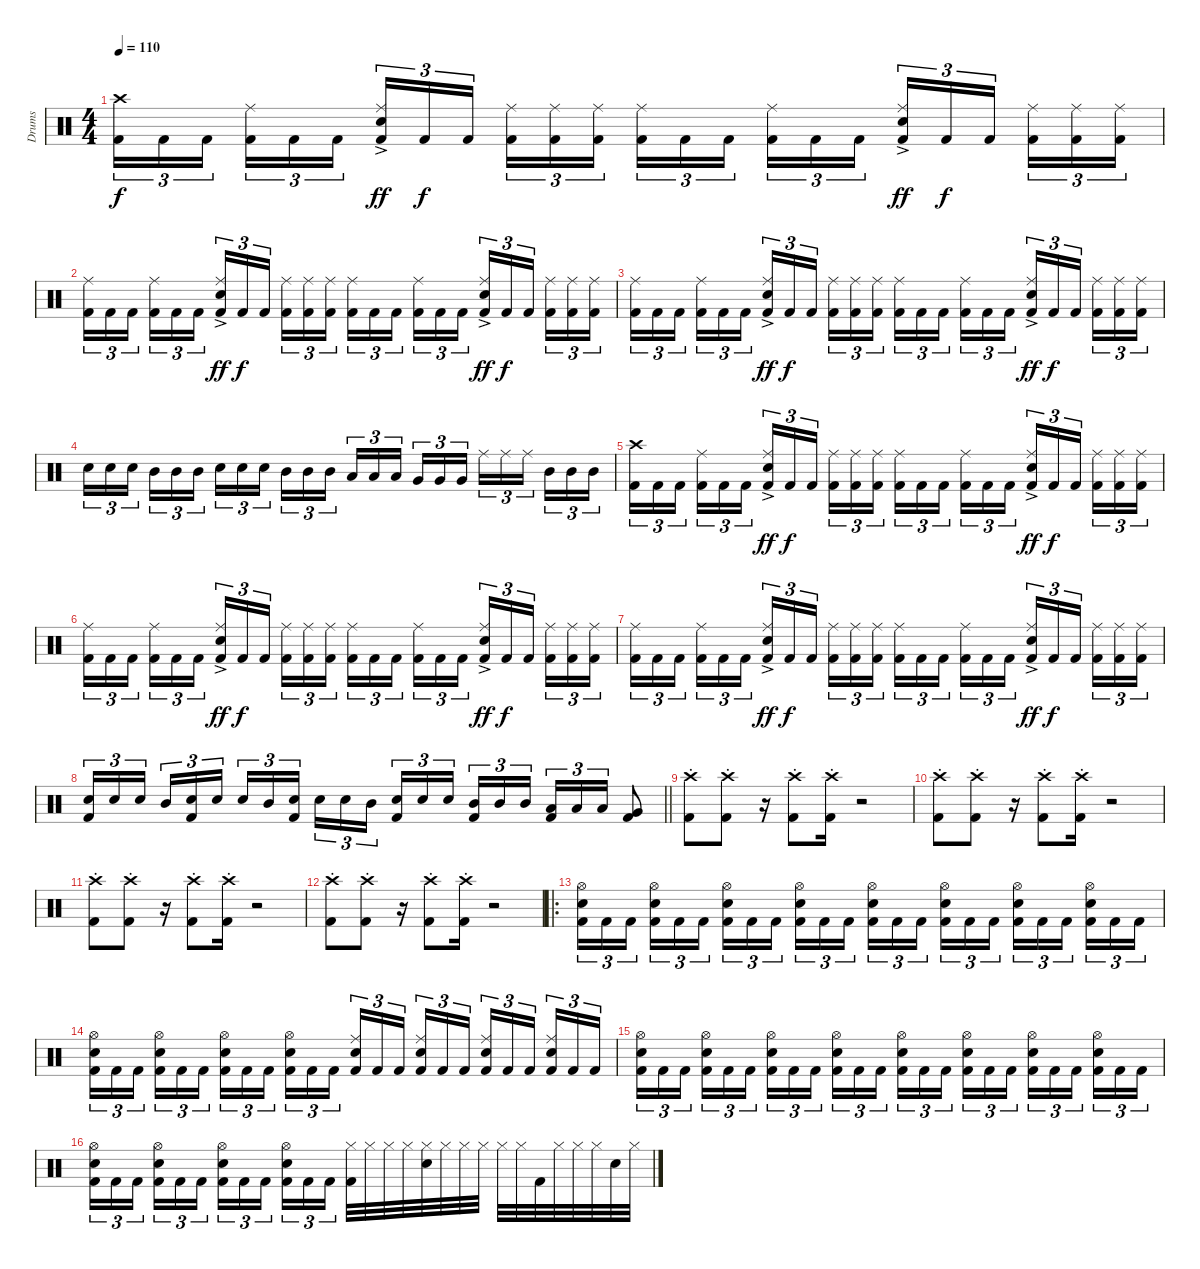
\track ("Drums" "Drums") {instrument percussion}
\staff {score}
\articulation defaults
\ts (4 4)
\tempo 110
\clef neutral
\ks c
("Crash high (hit)" "Kick (hit) 2").16{tu (3 2) dy f} "Kick (hit) 2".16{tu (3 2)} "Kick (hit) 2".16{tu (3 2) beam splitsecondary} ("Ride (middle)" "Kick (hit) 2").16{tu (3 2)} "Kick (hit) 2".16{tu (3 2)} "Kick (hit) 2".16{tu (3 2)} ("Ride (middle)"{ac} "Snare (hit) 2" "Kick (hit) 2").16{tu (3 2) dy ff} "Kick (hit) 2".16{tu (3 2) dy f} "Kick (hit) 2".16{tu (3 2) beam splitsecondary} ("Ride (middle)" "Kick (hit) 2").16{tu (3 2)} ("Ride (middle)" "Kick (hit) 2").16{tu (3 2)} ("Ride (middle)" "Kick (hit) 2").16{tu (3 2)} ("Ride (middle)" "Kick (hit) 2").16{tu (3 2)} "Kick (hit) 2".16{tu (3 2)} "Kick (hit) 2".16{tu (3 2) beam splitsecondary} ("Ride (middle)" "Kick (hit) 2").16{tu (3 2)} "Kick (hit) 2".16{tu (3 2)} "Kick (hit) 2".16{tu (3 2)} ("Ride (middle)"{ac} "Snare (hit) 2" "Kick (hit) 2").16{tu (3 2) dy ff} "Kick (hit) 2".16{tu (3 2) dy f} "Kick (hit) 2".16{tu (3 2) beam splitsecondary} ("Ride (middle)" "Kick (hit) 2").16{tu (3 2)} ("Ride (middle)" "Kick (hit) 2").16{tu (3 2)} ("Ride (middle)" "Kick (hit) 2").16{tu (3 2)} |
("Ride (middle)" "Kick (hit) 2").16{tu (3 2)} "Kick (hit) 2".16{tu (3 2)} "Kick (hit) 2".16{tu (3 2) beam splitsecondary} ("Ride (middle)" "Kick (hit) 2").16{tu (3 2)} "Kick (hit) 2".16{tu (3 2)} "Kick (hit) 2".16{tu (3 2)} ("Ride (middle)"{ac} "Snare (hit) 2" "Kick (hit) 2").16{tu (3 2) dy ff} "Kick (hit) 2".16{tu (3 2) dy f} "Kick (hit) 2".16{tu (3 2) beam splitsecondary} ("Ride (middle)" "Kick (hit) 2").16{tu (3 2)} ("Ride (middle)" "Kick (hit) 2").16{tu (3 2)} ("Ride (middle)" "Kick (hit) 2").16{tu (3 2)} ("Ride (middle)" "Kick (hit) 2").16{tu (3 2)} "Kick (hit) 2".16{tu (3 2)} "Kick (hit) 2".16{tu (3 2) beam splitsecondary} ("Ride (middle)" "Kick (hit) 2").16{tu (3 2)} "Kick (hit) 2".16{tu (3 2)} "Kick (hit) 2".16{tu (3 2)} ("Ride (middle)"{ac} "Snare (hit) 2" "Kick (hit) 2").16{tu (3 2) dy ff} "Kick (hit) 2".16{tu (3 2) dy f} "Kick (hit) 2".16{tu (3 2) beam splitsecondary} ("Ride (middle)" "Kick (hit) 2").16{tu (3 2)} ("Ride (middle)" "Kick (hit) 2").16{tu (3 2)} ("Ride (middle)" "Kick (hit) 2").16{tu (3 2)} |
("Ride (middle)" "Kick (hit) 2").16{tu (3 2)} "Kick (hit) 2".16{tu (3 2)} "Kick (hit) 2".16{tu (3 2) beam splitsecondary} ("Ride (middle)" "Kick (hit) 2").16{tu (3 2)} "Kick (hit) 2".16{tu (3 2)} "Kick (hit) 2".16{tu (3 2)} ("Ride (middle)"{ac} "Snare (hit) 2" "Kick (hit) 2").16{tu (3 2) dy ff} "Kick (hit) 2".16{tu (3 2) dy f} "Kick (hit) 2".16{tu (3 2) beam splitsecondary} ("Ride (middle)" "Kick (hit) 2").16{tu (3 2)} ("Ride (middle)" "Kick (hit) 2").16{tu (3 2)} ("Ride (middle)" "Kick (hit) 2").16{tu (3 2)} ("Ride (middle)" "Kick (hit) 2").16{tu (3 2)} "Kick (hit) 2".16{tu (3 2)} "Kick (hit) 2".16{tu (3 2) beam splitsecondary} ("Ride (middle)" "Kick (hit) 2").16{tu (3 2)} "Kick (hit) 2".16{tu (3 2)} "Kick (hit) 2".16{tu (3 2)} ("Ride (middle)"{ac} "Snare (hit) 2" "Kick (hit) 2").16{tu (3 2) dy ff} "Kick (hit) 2".16{tu (3 2) dy f} "Kick (hit) 2".16{tu (3 2) beam splitsecondary} ("Ride (middle)" "Kick (hit) 2").16{tu (3 2)} ("Ride (middle)" "Kick (hit) 2").16{tu (3 2)} ("Ride (middle)" "Kick (hit) 2").16{tu (3 2)} |
"Snare (hit) 2".16{tu (3 2)} "Snare (hit) 2".16{tu (3 2)} "Snare (hit) 2".16{tu (3 2) beam splitsecondary} "Mid Tom (hit)".16{tu (3 2)} "Mid Tom (hit)".16{tu (3 2)} "Mid Tom (hit)".16{tu (3 2)} "Snare (hit) 2".16{tu (3 2)} "Snare (hit) 2".16{tu (3 2)} "Snare (hit) 2".16{tu (3 2) beam splitsecondary} "Mid Tom (hit)".16{tu (3 2)} "Mid Tom (hit)".16{tu (3 2)} "Mid Tom (hit)".16{tu (3 2)} "Low Tom (hit)".16{tu (3 2)} "Low Tom (hit)".16{tu (3 2)} "Low Tom (hit)".16{tu (3 2) beam splitsecondary} "Very Low Tom (hit)".16{tu (3 2)} "Very Low Tom (hit)".16{tu (3 2)} "Very Low Tom (hit)".16{tu (3 2)} "Ride (middle)".16{tu (3 2)} "Ride (middle)".16{tu (3 2)} "Ride (middle)".16{tu (3 2) beam splitsecondary} "Mid Tom (hit)".16{tu (3 2)} "Mid Tom (hit)".16{tu (3 2)} "Mid Tom (hit)".16{tu (3 2)} |
("Crash high (hit)" "Kick (hit) 2").16{tu (3 2)} "Kick (hit) 2".16{tu (3 2)} "Kick (hit) 2".16{tu (3 2) beam splitsecondary} ("Ride (middle)" "Kick (hit) 2").16{tu (3 2)} "Kick (hit) 2".16{tu (3 2)} "Kick (hit) 2".16{tu (3 2)} ("Ride (middle)"{ac} "Snare (hit) 2" "Kick (hit) 2").16{tu (3 2) dy ff} "Kick (hit) 2".16{tu (3 2) dy f} "Kick (hit) 2".16{tu (3 2) beam splitsecondary} ("Ride (middle)" "Kick (hit) 2").16{tu (3 2)} ("Ride (middle)" "Kick (hit) 2").16{tu (3 2)} ("Ride (middle)" "Kick (hit) 2").16{tu (3 2)} ("Ride (middle)" "Kick (hit) 2").16{tu (3 2)} "Kick (hit) 2".16{tu (3 2)} "Kick (hit) 2".16{tu (3 2) beam splitsecondary} ("Ride (middle)" "Kick (hit) 2").16{tu (3 2)} "Kick (hit) 2".16{tu (3 2)} "Kick (hit) 2".16{tu (3 2)} ("Ride (middle)"{ac} "Snare (hit) 2" "Kick (hit) 2").16{tu (3 2) dy ff} "Kick (hit) 2".16{tu (3 2) dy f} "Kick (hit) 2".16{tu (3 2) beam splitsecondary} ("Ride (middle)" "Kick (hit) 2").16{tu (3 2)} ("Ride (middle)" "Kick (hit) 2").16{tu (3 2)} ("Ride (middle)" "Kick (hit) 2").16{tu (3 2)} |
("Ride (middle)" "Kick (hit) 2").16{tu (3 2)} "Kick (hit) 2".16{tu (3 2)} "Kick (hit) 2".16{tu (3 2) beam splitsecondary} ("Ride (middle)" "Kick (hit) 2").16{tu (3 2)} "Kick (hit) 2".16{tu (3 2)} "Kick (hit) 2".16{tu (3 2)} ("Ride (middle)"{ac} "Snare (hit) 2" "Kick (hit) 2").16{tu (3 2) dy ff} "Kick (hit) 2".16{tu (3 2) dy f} "Kick (hit) 2".16{tu (3 2) beam splitsecondary} ("Ride (middle)" "Kick (hit) 2").16{tu (3 2)} ("Ride (middle)" "Kick (hit) 2").16{tu (3 2)} ("Ride (middle)" "Kick (hit) 2").16{tu (3 2)} ("Ride (middle)" "Kick (hit) 2").16{tu (3 2)} "Kick (hit) 2".16{tu (3 2)} "Kick (hit) 2".16{tu (3 2) beam splitsecondary} ("Ride (middle)" "Kick (hit) 2").16{tu (3 2)} "Kick (hit) 2".16{tu (3 2)} "Kick (hit) 2".16{tu (3 2)} ("Ride (middle)"{ac} "Snare (hit) 2" "Kick (hit) 2").16{tu (3 2) dy ff} "Kick (hit) 2".16{tu (3 2) dy f} "Kick (hit) 2".16{tu (3 2) beam splitsecondary} ("Ride (middle)" "Kick (hit) 2").16{tu (3 2)} ("Ride (middle)" "Kick (hit) 2").16{tu (3 2)} ("Ride (middle)" "Kick (hit) 2").16{tu (3 2)} |
("Ride (middle)" "Kick (hit) 2").16{tu (3 2)} "Kick (hit) 2".16{tu (3 2)} "Kick (hit) 2".16{tu (3 2) beam splitsecondary} ("Ride (middle)" "Kick (hit) 2").16{tu (3 2)} "Kick (hit) 2".16{tu (3 2)} "Kick (hit) 2".16{tu (3 2)} ("Ride (middle)"{ac} "Snare (hit) 2" "Kick (hit) 2").16{tu (3 2) dy ff} "Kick (hit) 2".16{tu (3 2) dy f} "Kick (hit) 2".16{tu (3 2) beam splitsecondary} ("Ride (middle)" "Kick (hit) 2").16{tu (3 2)} ("Ride (middle)" "Kick (hit) 2").16{tu (3 2)} ("Ride (middle)" "Kick (hit) 2").16{tu (3 2)} ("Ride (middle)" "Kick (hit) 2").16{tu (3 2)} "Kick (hit) 2".16{tu (3 2)} "Kick (hit) 2".16{tu (3 2) beam splitsecondary} ("Ride (middle)" "Kick (hit) 2").16{tu (3 2)} "Kick (hit) 2".16{tu (3 2)} "Kick (hit) 2".16{tu (3 2)} ("Ride (middle)"{ac} "Snare (hit) 2" "Kick (hit) 2").16{tu (3 2) dy ff} "Kick (hit) 2".16{tu (3 2) dy f} "Kick (hit) 2".16{tu (3 2) beam splitsecondary} ("Ride (middle)" "Kick (hit) 2").16{tu (3 2)} ("Ride (middle)" "Kick (hit) 2").16{tu (3 2)} ("Ride (middle)" "Kick (hit) 2").16{tu (3 2)} |
\barLineRight lightlight
("Snare (hit) 2" "Kick (hit) 2").16{tu (3 2)} "Snare (hit) 2".16{tu (3 2)} "Snare (hit) 2".16{tu (3 2) beam splitsecondary} "Mid Tom (hit)".16{tu (3 2)} ("Snare (hit) 2" "Kick (hit) 2").16{tu (3 2)} "Snare (hit) 2".16{tu (3 2)} "Snare (hit) 2".16{tu (3 2)} "Mid Tom (hit)".16{tu (3 2)} ("Snare (hit) 2" "Kick (hit) 2").16{tu (3 2) beam splitsecondary} "Snare (hit) 2".16{tu (3 2)} "Snare (hit) 2".16{tu (3 2)} "Mid Tom (hit)".16{tu (3 2)} ("Snare (hit) 2" "Kick (hit) 2").16{tu (3 2)} "Snare (hit) 2".16{tu (3 2)} "Snare (hit) 2".16{tu (3 2) beam splitsecondary} ("Mid Tom (hit)" "Kick (hit) 2").16{tu (3 2)} "Mid Tom (hit)".16{tu (3 2)} "Mid Tom (hit)".16{tu (3 2)} ("Low Tom (hit)" "Kick (hit) 2").16{tu (3 2)} "Low Tom (hit)".16{tu (3 2)} "Low Tom (hit)".16{tu (3 2)} ("Very Low Tom (hit)" "Kick (hit) 2").8 |
("Crash high (hit)"{st} "Kick (hit) 2").8 ("Crash high (hit)"{st} "Kick (hit) 2").8 r.16 ("Crash high (hit)"{st} "Kick (hit) 2").8 ("Crash high (hit)"{st} "Kick (hit) 2").16 r.2 |
("Crash high (hit)"{st} "Kick (hit) 2").8 ("Crash high (hit)"{st} "Kick (hit) 2").8 r.16 ("Crash high (hit)"{st} "Kick (hit) 2").8 ("Crash high (hit)"{st} "Kick (hit) 2").16 r.2 |
("Crash high (hit)"{st} "Kick (hit) 2").8 ("Crash high (hit)"{st} "Kick (hit) 2").8 r.16 ("Crash high (hit)"{st} "Kick (hit) 2").8 ("Crash high (hit)"{st} "Kick (hit) 2").16 r.2 |
("Crash high (hit)"{st} "Kick (hit) 2").8 ("Crash high (hit)"{st} "Kick (hit) 2").8 r.16 ("Crash high (hit)"{st} "Kick (hit) 2").8 ("Crash high (hit)"{st} "Kick (hit) 2").16 r.2 |
\ro
("Hi-Hat (open)" "Snare (hit) 2" "Kick (hit) 2").16{tu (3 2)} "Kick (hit) 2".16{tu (3 2)} "Kick (hit) 2".16{tu (3 2) beam splitsecondary} ("Hi-Hat (open)" "Snare (hit) 2" "Kick (hit) 2").16{tu (3 2)} "Kick (hit) 2".16{tu (3 2)} "Kick (hit) 2".16{tu (3 2)} ("Hi-Hat (open)" "Snare (hit) 2" "Kick (hit) 2").16{tu (3 2)} "Kick (hit) 2".16{tu (3 2)} "Kick (hit) 2".16{tu (3 2) beam splitsecondary} ("Hi-Hat (open)" "Snare (hit) 2" "Kick (hit) 2").16{tu (3 2)} "Kick (hit) 2".16{tu (3 2)} "Kick (hit) 2".16{tu (3 2)} ("Hi-Hat (open)" "Snare (hit) 2" "Kick (hit) 2").16{tu (3 2)} "Kick (hit) 2".16{tu (3 2)} "Kick (hit) 2".16{tu (3 2) beam splitsecondary} ("Hi-Hat (open)" "Snare (hit) 2" "Kick (hit) 2").16{tu (3 2)} "Kick (hit) 2".16{tu (3 2)} "Kick (hit) 2".16{tu (3 2)} ("Hi-Hat (open)" "Snare (hit) 2" "Kick (hit) 2").16{tu (3 2)} "Kick (hit) 2".16{tu (3 2)} "Kick (hit) 2".16{tu (3 2) beam splitsecondary} ("Hi-Hat (open)" "Snare (hit) 2" "Kick (hit) 2").16{tu (3 2)} "Kick (hit) 2".16{tu (3 2)} "Kick (hit) 2".16{tu (3 2)} |
("Hi-Hat (open)" "Snare (hit) 2" "Kick (hit) 2").16{tu (3 2)} "Kick (hit) 2".16{tu (3 2)} "Kick (hit) 2".16{tu (3 2) beam splitsecondary} ("Hi-Hat (open)" "Snare (hit) 2" "Kick (hit) 2").16{tu (3 2)} "Kick (hit) 2".16{tu (3 2)} "Kick (hit) 2".16{tu (3 2)} ("Hi-Hat (open)" "Snare (hit) 2" "Kick (hit) 2").16{tu (3 2)} "Kick (hit) 2".16{tu (3 2)} "Kick (hit) 2".16{tu (3 2) beam splitsecondary} ("Hi-Hat (open)" "Snare (hit) 2" "Kick (hit) 2").16{tu (3 2)} "Kick (hit) 2".16{tu (3 2)} "Kick (hit) 2".16{tu (3 2)} ("Ride (middle)" "Snare (hit) 2" "Kick (hit) 2").16{tu (3 2)} "Kick (hit) 2".16{tu (3 2)} "Kick (hit) 2".16{tu (3 2) beam splitsecondary} ("Ride (middle)" "Snare (hit) 2" "Kick (hit) 2").16{tu (3 2)} "Kick (hit) 2".16{tu (3 2)} "Kick (hit) 2".16{tu (3 2)} ("Ride (middle)" "Snare (hit) 2" "Kick (hit) 2").16{tu (3 2)} "Kick (hit) 2".16{tu (3 2)} "Kick (hit) 2".16{tu (3 2) beam splitsecondary} ("Ride (middle)" "Snare (hit) 2" "Kick (hit) 2").16{tu (3 2)} "Kick (hit) 2".16{tu (3 2)} "Kick (hit) 2".16{tu (3 2)} |
("Hi-Hat (open)" "Snare (hit) 2" "Kick (hit) 2").16{tu (3 2)} "Kick (hit) 2".16{tu (3 2)} "Kick (hit) 2".16{tu (3 2) beam splitsecondary} ("Hi-Hat (open)" "Snare (hit) 2" "Kick (hit) 2").16{tu (3 2)} "Kick (hit) 2".16{tu (3 2)} "Kick (hit) 2".16{tu (3 2)} ("Hi-Hat (open)" "Snare (hit) 2" "Kick (hit) 2").16{tu (3 2)} "Kick (hit) 2".16{tu (3 2)} "Kick (hit) 2".16{tu (3 2) beam splitsecondary} ("Hi-Hat (open)" "Snare (hit) 2" "Kick (hit) 2").16{tu (3 2)} "Kick (hit) 2".16{tu (3 2)} "Kick (hit) 2".16{tu (3 2)} ("Hi-Hat (open)" "Snare (hit) 2" "Kick (hit) 2").16{tu (3 2)} "Kick (hit) 2".16{tu (3 2)} "Kick (hit) 2".16{tu (3 2) beam splitsecondary} ("Hi-Hat (open)" "Snare (hit) 2" "Kick (hit) 2").16{tu (3 2)} "Kick (hit) 2".16{tu (3 2)} "Kick (hit) 2".16{tu (3 2)} ("Hi-Hat (open)" "Snare (hit) 2" "Kick (hit) 2").16{tu (3 2)} "Kick (hit) 2".16{tu (3 2)} "Kick (hit) 2".16{tu (3 2) beam splitsecondary} ("Hi-Hat (open)" "Snare (hit) 2" "Kick (hit) 2").16{tu (3 2)} "Kick (hit) 2".16{tu (3 2)} "Kick (hit) 2".16{tu (3 2)} |
("Hi-Hat (open)" "Snare (hit) 2" "Kick (hit) 2").16{tu (3 2)} "Kick (hit) 2".16{tu (3 2)} "Kick (hit) 2".16{tu (3 2) beam splitsecondary} ("Hi-Hat (open)" "Snare (hit) 2" "Kick (hit) 2").16{tu (3 2)} "Kick (hit) 2".16{tu (3 2)} "Kick (hit) 2".16{tu (3 2)} ("Hi-Hat (open)" "Snare (hit) 2" "Kick (hit) 2").16{tu (3 2)} "Kick (hit) 2".16{tu (3 2)} "Kick (hit) 2".16{tu (3 2) beam splitsecondary} ("Hi-Hat (open)" "Snare (hit) 2" "Kick (hit) 2").16{tu (3 2)} "Kick (hit) 2".16{tu (3 2)} "Kick (hit) 2".16{tu (3 2)} ("Hi-Hat (closed)" "Kick (hit) 2").32 "Hi-Hat (closed)".32 "Hi-Hat (closed)".32 "Hi-Hat (closed)".32 ("Hi-Hat (closed)" "Snare (hit) 2").32 "Hi-Hat (closed)".32 "Hi-Hat (closed)".32 "Hi-Hat (closed)".32 "Hi-Hat (closed)".32 "Hi-Hat (closed)".32 "Kick (hit) 2".32 "Hi-Hat (closed)".32 "Hi-Hat (closed)".32 "Hi-Hat (closed)".32 "Snare (hit) 2".32 "Hi-Hat (closed)".32
